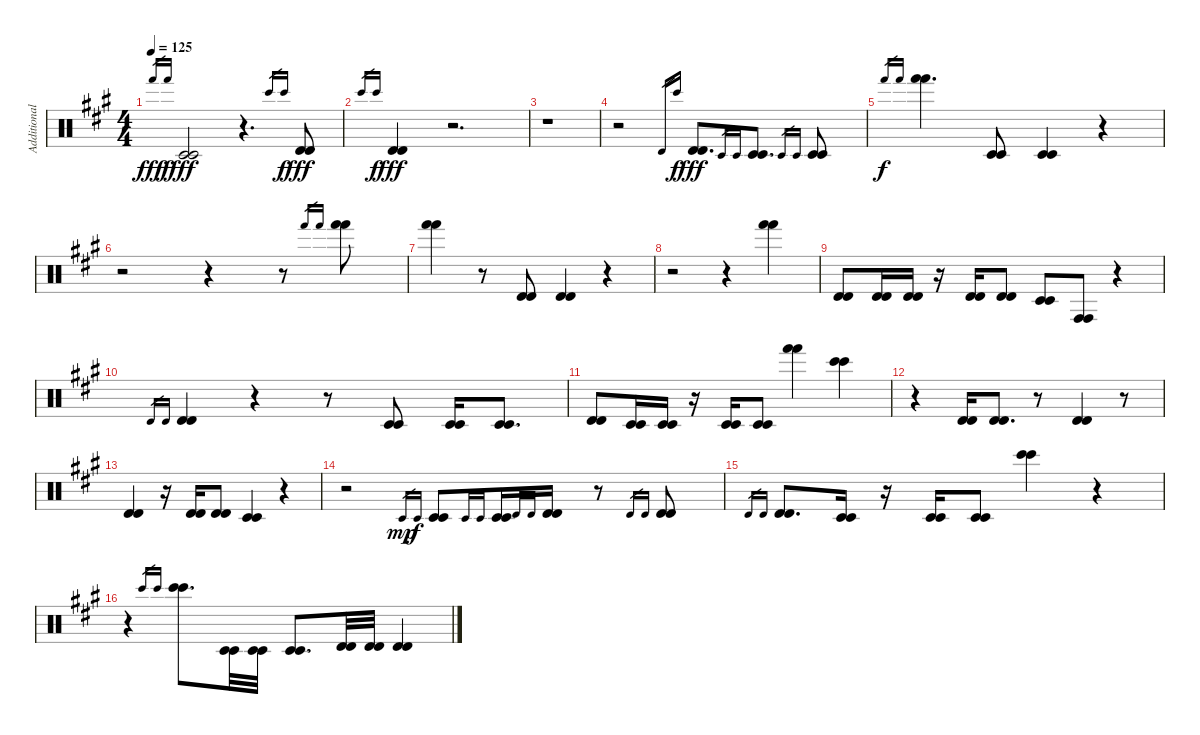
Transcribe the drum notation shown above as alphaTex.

\track ("Additional Percussion I" "Additional") {instrument percussion}
\staff {score}
\articulation defaults
\ts (4 4)
\tempo 125
\clef neutral
\ks a "Hand (hit)".16{gr dy fff} "Hand (hit)".16{gr dy f}
("Timbale low (hit)" "Timbale low (hit)").2{dy fff} r.4{d} "Bongo High (hit)".16{gr} "Bongo High (hit)".16{gr dy f} ("Timbale high (hit)" "Timbale high (hit)").8{dy fff} |
"Bongo High (hit)".16{gr} "Bongo High (hit)".16{gr dy f} ("Timbale high (hit)" "Timbale high (hit)").4{dy fff} r.2{d} |
r.1 |
r.2 "Timbale high (hit)".16{gr} "Bongo High (hit)".16{gr dy f} ("Timbale high (hit)" "Timbale high (hit)").8{d dy fff} "Timbale low (hit)".16{gr} "Timbale low (hit)".16{gr} ("Timbale low (hit)" "Timbale low (hit)").8{d} "Timbale low (hit)".16{gr} "Timbale low (hit)".16{gr} ("Timbale low (hit)" "Timbale low (hit)").8 |
"Hand (hit)".16{gr dy f} "Hand (hit)".16{gr} ("Hand (hit)" "Hand (hit)").4{d} ("Timbale low (hit)" "Timbale low (hit)").8 ("Timbale low (hit)" "Timbale low (hit)").4 r.4 |
r.2 r.4 r.8 "Hand (hit)".16{gr} "Hand (hit)".16{gr} ("Hand (hit)" "Hand (hit)").8 |
("Hand (hit)" "Hand (hit)").4 r.8 ("Timbale high (hit)" "Timbale high (hit)").8 ("Timbale high (hit)" "Timbale high (hit)").4 r.4 |
r.2 r.4 ("Hand (hit)" "Hand (hit)").4 |
("Timbale high (hit)" "Timbale high (hit)").8 ("Timbale high (hit)" "Timbale high (hit)").16 ("Timbale high (hit)" "Timbale high (hit)").16 r.16 ("Timbale high (hit)" "Timbale high (hit)").16 ("Timbale high (hit)" "Timbale high (hit)").8 ("Timbale low (hit)" "Timbale low (hit)").8 ("Conga high (hit)" "Conga high (hit)").8 r.4 |
"Timbale high (hit)".16{gr} "Timbale high (hit)".16{gr} ("Timbale high (hit)" "Timbale high (hit)").4 r.4 r.8 ("Timbale low (hit)" "Timbale low (hit)").8 ("Timbale low (hit)" "Timbale low (hit)").16 ("Timbale low (hit)" "Timbale low (hit)").8{d} |
("Timbale high (hit)" "Timbale high (hit)").8 ("Timbale low (hit)" "Timbale low (hit)").16 ("Timbale low (hit)" "Timbale low (hit)").16 r.16 ("Timbale low (hit)" "Timbale low (hit)").16 ("Timbale low (hit)" "Timbale low (hit)").8 ("Hand (hit)" "Hand (hit)").4 ("Bongo High (hit)" "Bongo High (hit)").4 |
r.4 ("Timbale high (hit)" "Timbale high (hit)").16 ("Timbale high (hit)" "Timbale high (hit)").8{d} r.8 ("Timbale high (hit)" "Timbale high (hit)").4 r.8 |
("Timbale high (hit)" "Timbale high (hit)").4 r.16 ("Timbale high (hit)" "Timbale high (hit)").16 ("Timbale high (hit)" "Timbale high (hit)").8 ("Timbale low (hit)" "Timbale low (hit)").4 r.4 |
r.2 "Timbale low (hit)".16{gr dy mp} "Timbale low (hit)".16{gr dy f} ("Timbale low (hit)" "Timbale low (hit)").8 "Timbale low (hit)".16{gr onbeat} "Timbale low (hit)".16{gr onbeat} ("Timbale low (hit)" "Timbale low (hit)").16 "Timbale high (hit)".16{gr onbeat} "Timbale high (hit)".16{gr onbeat} ("Timbale high (hit)" "Timbale high (hit)").16 r.8 "Timbale high (hit)".16{gr} "Timbale high (hit)".16{gr} ("Timbale high (hit)" "Timbale high (hit)").8 |
"Timbale high (hit)".16{gr} "Timbale high (hit)".16{gr} ("Timbale high (hit)" "Timbale high (hit)").8{d} ("Timbale low (hit)" "Timbale low (hit)").16 r.16 ("Timbale low (hit)" "Timbale low (hit)").16 ("Timbale low (hit)" "Timbale low (hit)").8 ("Bongo High (hit)" "Bongo High (hit)").4 r.4 |
r.4 "Bongo High (hit)".16{gr} "Bongo High (hit)".16{gr} ("Bongo High (hit)" "Bongo High (hit)").8{d} ("Timbale low (hit)" "Timbale low (hit)").32 ("Timbale low (hit)" "Timbale low (hit)").32 ("Timbale low (hit)" "Timbale low (hit)").8{d} ("Timbale high (hit)" "Timbale high (hit)").32 ("Timbale high (hit)" "Timbale high (hit)").32 ("Timbale high (hit)" "Timbale high (hit)").4
